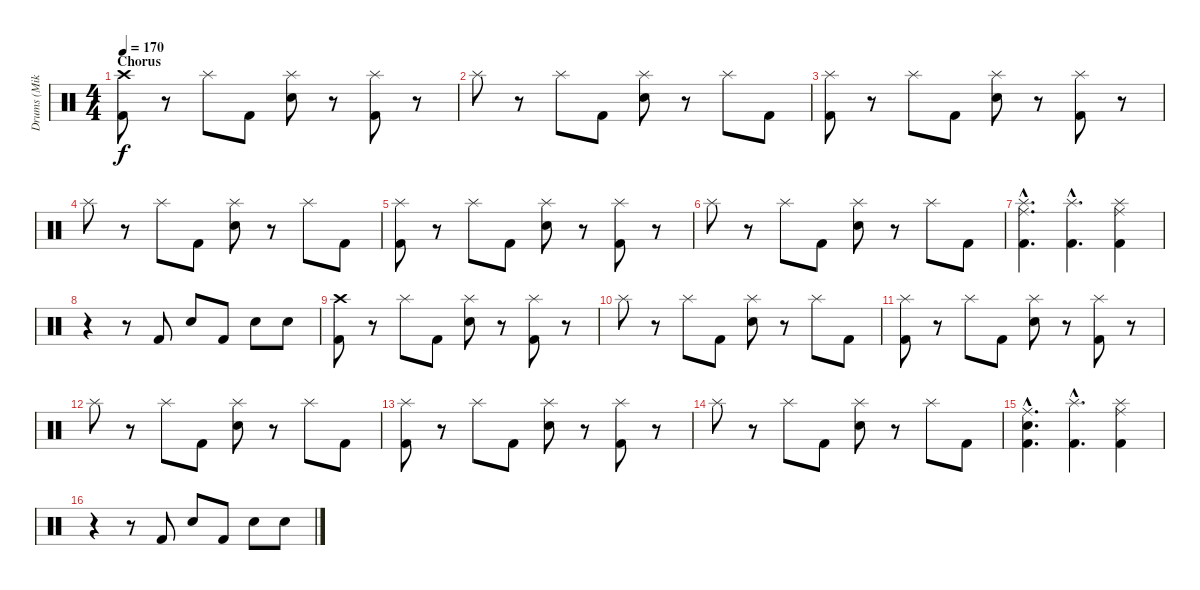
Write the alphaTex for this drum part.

\track ("Drums (Mike C)" "Drums (Mik") {instrument percussion}
\staff {score}
\articulation defaults
\ts (4 4)
\section ("" "Chorus")
\tempo 170
\clef neutral
\ks c
("Crash high (hit)" "Kick (hit) 2").8{dy f} r.8 "Splash (hit)".8 "Kick (hit) 2".8 ("Splash (hit)" "Snare (hit) 2").8 r.8 ("Splash (hit)" "Kick (hit) 2").8 r.8 |
"Splash (hit)".8 r.8 "Splash (hit)".8 "Kick (hit) 2".8 ("Splash (hit)" "Snare (hit) 2").8 r.8 "Splash (hit)".8 "Kick (hit) 2".8 |
("Splash (hit)" "Kick (hit) 2").8 r.8 "Splash (hit)".8 "Kick (hit) 2".8 ("Splash (hit)" "Snare (hit) 2").8 r.8 ("Splash (hit)" "Kick (hit) 2").8 r.8 |
"Splash (hit)".8 r.8 "Splash (hit)".8 "Kick (hit) 2".8 ("Splash (hit)" "Snare (hit) 2").8 r.8 "Splash (hit)".8 "Kick (hit) 2".8 |
("Splash (hit)" "Kick (hit) 2").8 r.8 "Splash (hit)".8 "Kick (hit) 2".8 ("Splash (hit)" "Snare (hit) 2").8 r.8 ("Splash (hit)" "Kick (hit) 2").8 r.8 |
"Splash (hit)".8 r.8 "Splash (hit)".8 "Kick (hit) 2".8 ("Splash (hit)" "Snare (hit) 2").8 r.8 "Splash (hit)".8 "Kick (hit) 2".8 |
("Ride (middle)"{hac} "Splash (hit)"{hac} "Kick (hit) 2"{hac}).4{d} ("Splash (hit)"{hac} "Kick (hit) 2"{hac}).4{d} ("Ride (middle)" "Splash (hit)" "Kick (hit) 2").4 |
r.4 r.8 "Kick (hit) 2".8 "Snare (hit) 2".8 "Kick (hit) 2".8 "Snare (hit) 2".8 "Snare (hit) 2".8 |
("Crash high (hit)" "Kick (hit) 2").8 r.8 "Splash (hit)".8 "Kick (hit) 2".8 ("Splash (hit)" "Snare (hit) 2").8 r.8 ("Splash (hit)" "Kick (hit) 2").8 r.8 |
"Splash (hit)".8 r.8 "Splash (hit)".8 "Kick (hit) 2".8 ("Splash (hit)" "Snare (hit) 2").8 r.8 "Splash (hit)".8 "Kick (hit) 2".8 |
("Splash (hit)" "Kick (hit) 2").8 r.8 "Splash (hit)".8 "Kick (hit) 2".8 ("Splash (hit)" "Snare (hit) 2").8 r.8 ("Splash (hit)" "Kick (hit) 2").8 r.8 |
"Splash (hit)".8 r.8 "Splash (hit)".8 "Kick (hit) 2".8 ("Splash (hit)" "Snare (hit) 2").8 r.8 "Splash (hit)".8 "Kick (hit) 2".8 |
("Splash (hit)" "Kick (hit) 2").8 r.8 "Splash (hit)".8 "Kick (hit) 2".8 ("Splash (hit)" "Snare (hit) 2").8 r.8 ("Splash (hit)" "Kick (hit) 2").8 r.8 |
"Splash (hit)".8 r.8 "Splash (hit)".8 "Kick (hit) 2".8 ("Splash (hit)" "Snare (hit) 2").8 r.8 "Splash (hit)".8 "Kick (hit) 2".8 |
("Ride (middle)"{hac} "Snare (hit)"{hac} "Kick (hit) 2"{hac}).4{d} ("Splash (hit)"{hac} "Kick (hit) 2"{hac}).4{d} ("Ride (middle)" "Splash (hit)" "Kick (hit) 2").4 |
r.4 r.8 "Kick (hit) 2".8 "Snare (hit) 2".8 "Kick (hit) 2".8 "Snare (hit) 2".8 "Snare (hit) 2".8
